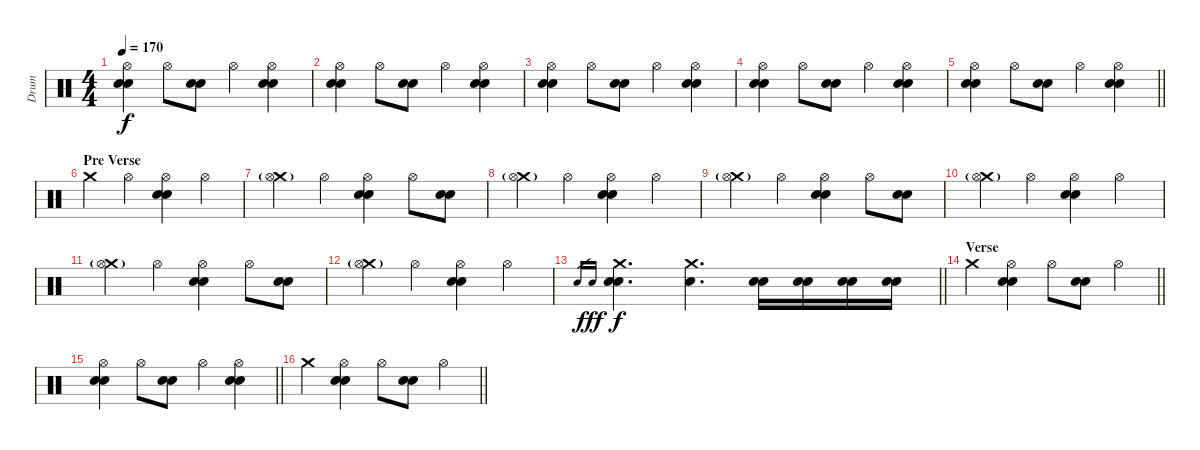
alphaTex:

\track ("Drum" "Drum") {instrument percussion}
\staff
\articulation defaults
\ts (4 4)
\tempo 170
\clef neutral
\ks c
("Hi-Hat (open)" "Electric Snare (hit)" "Snare (hit) 2").4{dy f} "Hi-Hat (open)".8 ("Electric Snare (hit)" "Snare (hit) 2").8 "Hi-Hat (open)".4 ("Hi-Hat (open)" "Electric Snare (hit)" "Snare (hit) 2").4 |
("Hi-Hat (open)" "Electric Snare (hit)" "Snare (hit) 2").4 "Hi-Hat (open)".8 ("Electric Snare (hit)" "Snare (hit) 2").8 "Hi-Hat (open)".4 ("Hi-Hat (open)" "Electric Snare (hit)" "Snare (hit) 2").4 |
("Hi-Hat (open)" "Electric Snare (hit)" "Snare (hit) 2").4 "Hi-Hat (open)".8 ("Electric Snare (hit)" "Snare (hit) 2").8 "Hi-Hat (open)".4 ("Hi-Hat (open)" "Electric Snare (hit)" "Snare (hit) 2").4 |
("Hi-Hat (open)" "Electric Snare (hit)" "Snare (hit) 2").4 "Hi-Hat (open)".8 ("Electric Snare (hit)" "Snare (hit) 2").8 "Hi-Hat (open)".4 ("Hi-Hat (open)" "Electric Snare (hit)" "Snare (hit) 2").4 |
\barLineRight lightlight
("Hi-Hat (open)" "Electric Snare (hit)" "Snare (hit) 2").4 "Hi-Hat (open)".8 ("Electric Snare (hit)" "Snare (hit) 2").8 "Hi-Hat (open)".4 ("Hi-Hat (open)" "Electric Snare (hit)" "Snare (hit) 2").4 |
\section ("" "Pre Verse")
"Crash medium (hit)".4 "Hi-Hat (open)".4 ("Hi-Hat (open)" "Electric Snare (hit)" "Snare (hit) 2").4 "Hi-Hat (open)".4 |
("Crash medium (hit)"{g} "Hi-Hat (open)").4 "Hi-Hat (open)".4 ("Hi-Hat (open)" "Electric Snare (hit)" "Snare (hit) 2").4 "Hi-Hat (open)".8 ("Electric Snare (hit)" "Snare (hit) 2").8 |
("Crash medium (hit)"{g} "Hi-Hat (open)").4 "Hi-Hat (open)".4 ("Hi-Hat (open)" "Electric Snare (hit)" "Snare (hit) 2").4 "Hi-Hat (open)".4 |
("Crash medium (hit)"{g} "Hi-Hat (open)").4 "Hi-Hat (open)".4 ("Hi-Hat (open)" "Electric Snare (hit)" "Snare (hit) 2").4 "Hi-Hat (open)".8 ("Electric Snare (hit)" "Snare (hit) 2").8 |
("Crash medium (hit)"{g} "Hi-Hat (open)").4 "Hi-Hat (open)".4 ("Hi-Hat (open)" "Electric Snare (hit)" "Snare (hit) 2").4 "Hi-Hat (open)".4 |
("Crash medium (hit)"{g} "Hi-Hat (open)").4 "Hi-Hat (open)".4 ("Hi-Hat (open)" "Electric Snare (hit)" "Snare (hit) 2").4 "Hi-Hat (open)".8 ("Electric Snare (hit)" "Snare (hit) 2").8 |
("Crash medium (hit)"{g} "Hi-Hat (open)").4 "Hi-Hat (open)".4 ("Hi-Hat (open)" "Electric Snare (hit)" "Snare (hit) 2").4 "Hi-Hat (open)".4 |
\barLineRight lightlight "Electric Snare (hit)".16{gr} "Snare (hit) 2".16{gr dy fff}
("Crash medium (hit)" "Electric Snare (hit)" "Snare (hit) 2").4{d dy f} ("Crash medium (hit)" "Electric Snare (hit)").4{d} ("Electric Snare (hit)" "Snare (hit) 2").16 ("Electric Snare (hit)" "Snare (hit) 2").16 ("Electric Snare (hit)" "Snare (hit) 2").16 ("Electric Snare (hit)" "Snare (hit) 2").16 |
\section ("" "Verse")
\barLineRight lightlight "Crash medium (hit)".4
("Hi-Hat (open)" "Electric Snare (hit)" "Snare (hit) 2").4 "Hi-Hat (open)".8 ("Electric Snare (hit)" "Snare (hit) 2").8 "Hi-Hat (open)".4 |
\barLineRight lightlight
("Hi-Hat (open)" "Electric Snare (hit)" "Snare (hit) 2").4 "Hi-Hat (open)".8 ("Electric Snare (hit)" "Snare (hit) 2").8 "Hi-Hat (open)".4 ("Hi-Hat (open)" "Electric Snare (hit)" "Snare (hit) 2").4 |
\barLineRight lightlight "Crash medium (hit)".4
("Hi-Hat (open)" "Electric Snare (hit)" "Snare (hit) 2").4 "Hi-Hat (open)".8 ("Electric Snare (hit)" "Snare (hit) 2").8 "Hi-Hat (open)".4
